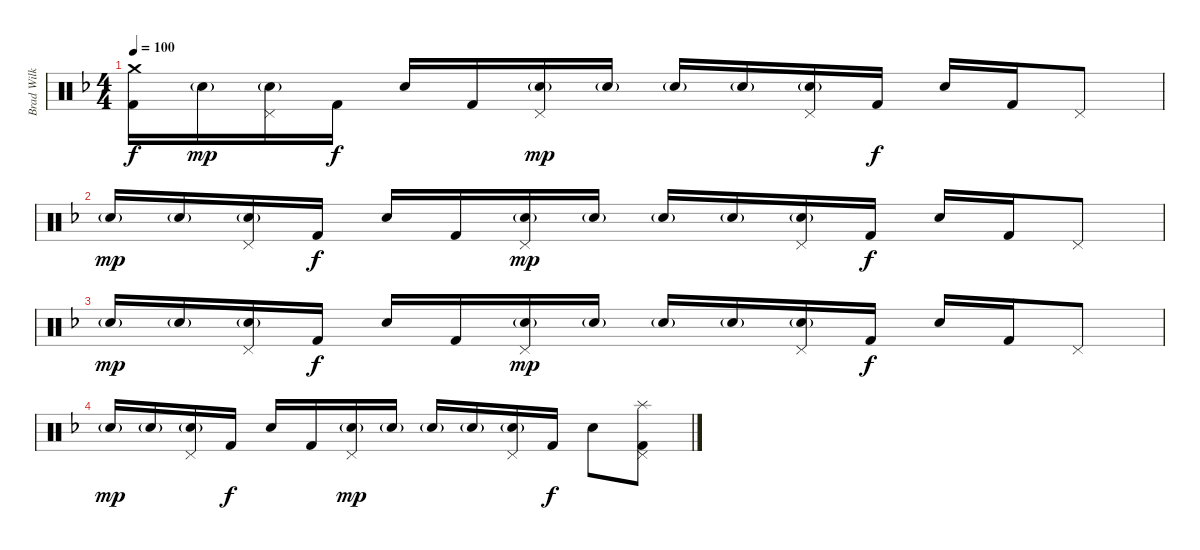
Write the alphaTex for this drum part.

\track ("Brad Wilk" "Brad Wilk") {instrument percussion}
\staff {score}
\articulation defaults
\ts (4 4)
\tempo 100
\clef neutral
\ks f
("Crash medium (hit)" "Kick (hit) 2").16{dy f} "Electric Snare (hit)"{g}.16{dy mp} ("Pedal Hi-Hat (hit)" "Electric Snare (hit)"{g}).16 "Kick (hit) 2".16{dy f} "Electric Snare (hit)".16 "Kick (hit) 2".16 ("Pedal Hi-Hat (hit)" "Electric Snare (hit)"{g}).16{dy mp} "Electric Snare (hit)"{g}.16 "Electric Snare (hit)"{g}.16 "Electric Snare (hit)"{g}.16 ("Pedal Hi-Hat (hit)" "Electric Snare (hit)"{g}).16 "Kick (hit) 2".16{dy f} "Electric Snare (hit)".16 "Kick (hit) 2".16 "Pedal Hi-Hat (hit)".8 |
"Electric Snare (hit)"{g}.16{dy mp} "Electric Snare (hit)"{g}.16 ("Pedal Hi-Hat (hit)" "Electric Snare (hit)"{g}).16 "Kick (hit) 2".16{dy f} "Electric Snare (hit)".16 "Kick (hit) 2".16 ("Pedal Hi-Hat (hit)" "Electric Snare (hit)"{g}).16{dy mp} "Electric Snare (hit)"{g}.16 "Electric Snare (hit)"{g}.16 "Electric Snare (hit)"{g}.16 ("Pedal Hi-Hat (hit)" "Electric Snare (hit)"{g}).16 "Kick (hit) 2".16{dy f} "Electric Snare (hit)".16 "Kick (hit) 2".16 "Pedal Hi-Hat (hit)".8 |
"Electric Snare (hit)"{g}.16{dy mp} "Electric Snare (hit)"{g}.16 ("Pedal Hi-Hat (hit)" "Electric Snare (hit)"{g}).16 "Kick (hit) 2".16{dy f} "Electric Snare (hit)".16 "Kick (hit) 2".16 ("Pedal Hi-Hat (hit)" "Electric Snare (hit)"{g}).16{dy mp} "Electric Snare (hit)"{g}.16 "Electric Snare (hit)"{g}.16 "Electric Snare (hit)"{g}.16 ("Pedal Hi-Hat (hit)" "Electric Snare (hit)"{g}).16 "Kick (hit) 2".16{dy f} "Electric Snare (hit)".16 "Kick (hit) 2".16 "Pedal Hi-Hat (hit)".8 |
"Electric Snare (hit)"{g}.16{dy mp} "Electric Snare (hit)"{g}.16 ("Pedal Hi-Hat (hit)" "Electric Snare (hit)"{g}).16 "Kick (hit) 2".16{dy f} "Electric Snare (hit)".16 "Kick (hit) 2".16 ("Pedal Hi-Hat (hit)" "Electric Snare (hit)"{g}).16{dy mp} "Electric Snare (hit)"{g}.16 "Electric Snare (hit)"{g}.16 "Electric Snare (hit)"{g}.16 ("Pedal Hi-Hat (hit)" "Electric Snare (hit)"{g}).16 "Kick (hit) 2".16{dy f} "Electric Snare (hit)".8 ("Splash (hit)" "Pedal Hi-Hat (hit)" "Kick (hit) 2").8
